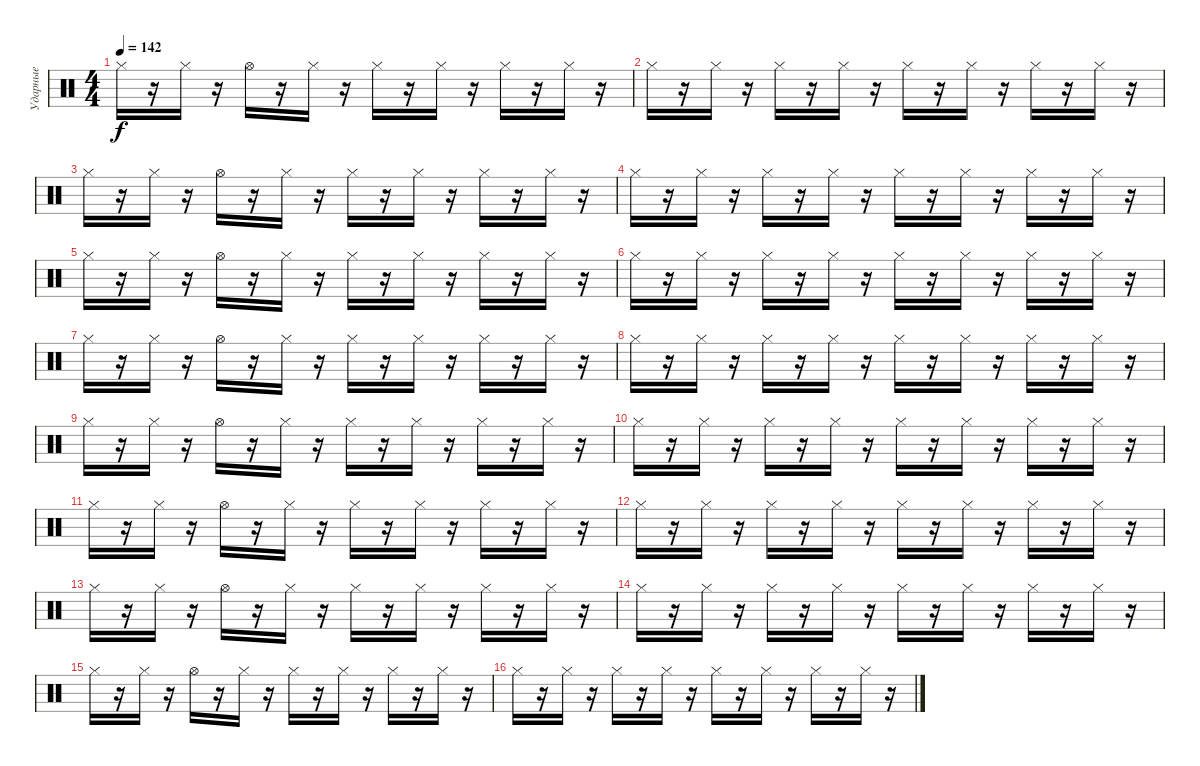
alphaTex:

\track ("Ударные" "Ударные") {instrument percussion}
\staff {score}
\articulation defaults
\ts (4 4)
\tempo 142
\clef neutral
\ks c "Hi-Hat (closed)".16{dy f}
r.16 "Hi-Hat (closed)".16 r.16 "Hi-Hat (open)".16 r.16 "Hi-Hat (closed)".16 r.16 "Hi-Hat (closed)".16 r.16 "Hi-Hat (closed)".16 r.16 "Hi-Hat (closed)".16 r.16 "Hi-Hat (closed)".16 r.16 |
"Hi-Hat (closed)".16 r.16 "Hi-Hat (closed)".16 r.16 "Hi-Hat (closed)".16 r.16 "Hi-Hat (closed)".16 r.16 "Hi-Hat (closed)".16 r.16 "Hi-Hat (closed)".16 r.16 "Hi-Hat (closed)".16 r.16 "Hi-Hat (closed)".16 r.16 |
"Hi-Hat (closed)".16 r.16 "Hi-Hat (closed)".16 r.16 "Hi-Hat (open)".16 r.16 "Hi-Hat (closed)".16 r.16 "Hi-Hat (closed)".16 r.16 "Hi-Hat (closed)".16 r.16 "Hi-Hat (closed)".16 r.16 "Hi-Hat (closed)".16 r.16 |
"Hi-Hat (closed)".16 r.16 "Hi-Hat (closed)".16 r.16 "Hi-Hat (closed)".16 r.16 "Hi-Hat (closed)".16 r.16 "Hi-Hat (closed)".16 r.16 "Hi-Hat (closed)".16 r.16 "Hi-Hat (closed)".16 r.16 "Hi-Hat (closed)".16 r.16 |
"Hi-Hat (closed)".16 r.16 "Hi-Hat (closed)".16 r.16 "Hi-Hat (open)".16 r.16 "Hi-Hat (closed)".16 r.16 "Hi-Hat (closed)".16 r.16 "Hi-Hat (closed)".16 r.16 "Hi-Hat (closed)".16 r.16 "Hi-Hat (closed)".16 r.16 |
"Hi-Hat (closed)".16 r.16 "Hi-Hat (closed)".16 r.16 "Hi-Hat (closed)".16 r.16 "Hi-Hat (closed)".16 r.16 "Hi-Hat (closed)".16 r.16 "Hi-Hat (closed)".16 r.16 "Hi-Hat (closed)".16 r.16 "Hi-Hat (closed)".16 r.16 |
"Hi-Hat (closed)".16 r.16 "Hi-Hat (closed)".16 r.16 "Hi-Hat (open)".16 r.16 "Hi-Hat (closed)".16 r.16 "Hi-Hat (closed)".16 r.16 "Hi-Hat (closed)".16 r.16 "Hi-Hat (closed)".16 r.16 "Hi-Hat (closed)".16 r.16 |
"Hi-Hat (closed)".16 r.16 "Hi-Hat (closed)".16 r.16 "Hi-Hat (closed)".16 r.16 "Hi-Hat (closed)".16 r.16 "Hi-Hat (closed)".16 r.16 "Hi-Hat (closed)".16 r.16 "Hi-Hat (closed)".16 r.16 "Hi-Hat (closed)".16 r.16 |
"Hi-Hat (closed)".16 r.16 "Hi-Hat (closed)".16 r.16 "Hi-Hat (open)".16 r.16 "Hi-Hat (closed)".16 r.16 "Hi-Hat (closed)".16 r.16 "Hi-Hat (closed)".16 r.16 "Hi-Hat (closed)".16 r.16 "Hi-Hat (closed)".16 r.16 |
"Hi-Hat (closed)".16 r.16 "Hi-Hat (closed)".16 r.16 "Hi-Hat (closed)".16 r.16 "Hi-Hat (closed)".16 r.16 "Hi-Hat (closed)".16 r.16 "Hi-Hat (closed)".16 r.16 "Hi-Hat (closed)".16 r.16 "Hi-Hat (closed)".16 r.16 |
"Hi-Hat (closed)".16 r.16 "Hi-Hat (closed)".16 r.16 "Hi-Hat (open)".16 r.16 "Hi-Hat (closed)".16 r.16 "Hi-Hat (closed)".16 r.16 "Hi-Hat (closed)".16 r.16 "Hi-Hat (closed)".16 r.16 "Hi-Hat (closed)".16 r.16 |
"Hi-Hat (closed)".16 r.16 "Hi-Hat (closed)".16 r.16 "Hi-Hat (closed)".16 r.16 "Hi-Hat (closed)".16 r.16 "Hi-Hat (closed)".16 r.16 "Hi-Hat (closed)".16 r.16 "Hi-Hat (closed)".16 r.16 "Hi-Hat (closed)".16 r.16 |
"Hi-Hat (closed)".16 r.16 "Hi-Hat (closed)".16 r.16 "Hi-Hat (open)".16 r.16 "Hi-Hat (closed)".16 r.16 "Hi-Hat (closed)".16 r.16 "Hi-Hat (closed)".16 r.16 "Hi-Hat (closed)".16 r.16 "Hi-Hat (closed)".16 r.16 |
"Hi-Hat (closed)".16 r.16 "Hi-Hat (closed)".16 r.16 "Hi-Hat (closed)".16 r.16 "Hi-Hat (closed)".16 r.16 "Hi-Hat (closed)".16 r.16 "Hi-Hat (closed)".16 r.16 "Hi-Hat (closed)".16 r.16 "Hi-Hat (closed)".16 r.16 |
"Hi-Hat (closed)".16 r.16 "Hi-Hat (closed)".16 r.16 "Hi-Hat (open)".16 r.16 "Hi-Hat (closed)".16 r.16 "Hi-Hat (closed)".16 r.16 "Hi-Hat (closed)".16 r.16 "Hi-Hat (closed)".16 r.16 "Hi-Hat (closed)".16 r.16 |
"Hi-Hat (closed)".16 r.16 "Hi-Hat (closed)".16 r.16 "Hi-Hat (closed)".16 r.16 "Hi-Hat (closed)".16 r.16 "Hi-Hat (closed)".16 r.16 "Hi-Hat (closed)".16 r.16 "Hi-Hat (closed)".16 r.16 "Hi-Hat (closed)".16 r.16
